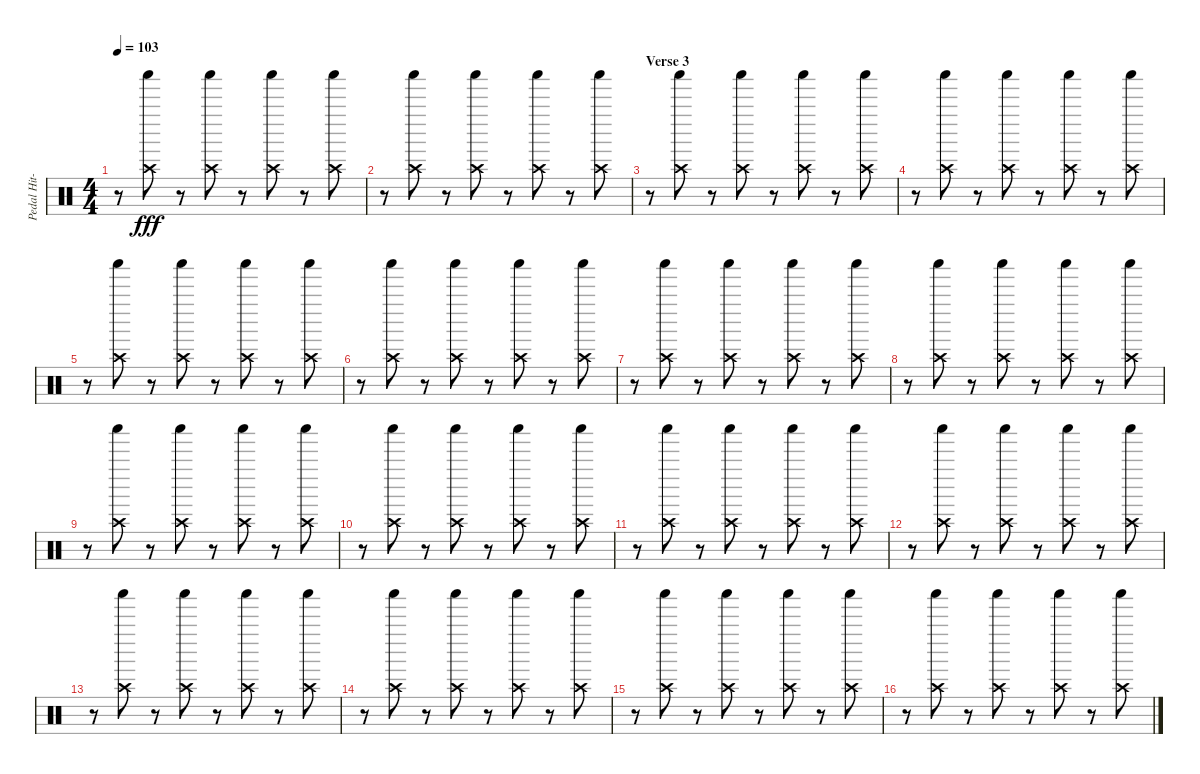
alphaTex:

\track ("Pedal Hit-Hat" "Pedal Hit-") {instrument percussion}
\staff {score}
\articulation defaults
\ts (4 4)
\tempo 103
\clef neutral
\ks c
r.8{dy fff} ("Crash high (hit)" "Shaker (hit)").8 r.8 ("Crash high (hit)" "Shaker (hit)").8 r.8 ("Crash high (hit)" "Shaker (hit)").8 r.8 ("Crash high (hit)" "Shaker (hit)").8 |
r.8 ("Crash high (hit)" "Shaker (hit)").8 r.8 ("Crash high (hit)" "Shaker (hit)").8 r.8 ("Crash high (hit)" "Shaker (hit)").8 r.8 ("Crash high (hit)" "Shaker (hit)").8 |
\section ("" "Verse 3")
r.8 ("Crash high (hit)" "Shaker (hit)").8 r.8 ("Crash high (hit)" "Shaker (hit)").8 r.8 ("Crash high (hit)" "Shaker (hit)").8 r.8 ("Crash high (hit)" "Shaker (hit)").8 |
r.8 ("Crash high (hit)" "Shaker (hit)").8 r.8 ("Crash high (hit)" "Shaker (hit)").8 r.8 ("Crash high (hit)" "Shaker (hit)").8 r.8 ("Crash high (hit)" "Shaker (hit)").8 |
r.8 ("Crash high (hit)" "Shaker (hit)").8 r.8 ("Crash high (hit)" "Shaker (hit)").8 r.8 ("Crash high (hit)" "Shaker (hit)").8 r.8 ("Crash high (hit)" "Shaker (hit)").8 |
r.8 ("Crash high (hit)" "Shaker (hit)").8 r.8 ("Crash high (hit)" "Shaker (hit)").8 r.8 ("Crash high (hit)" "Shaker (hit)").8 r.8 ("Crash high (hit)" "Shaker (hit)").8 |
r.8 ("Crash high (hit)" "Shaker (hit)").8 r.8 ("Crash high (hit)" "Shaker (hit)").8 r.8 ("Crash high (hit)" "Shaker (hit)").8 r.8 ("Crash high (hit)" "Shaker (hit)").8 |
r.8 ("Crash high (hit)" "Shaker (hit)").8 r.8 ("Crash high (hit)" "Shaker (hit)").8 r.8 ("Crash high (hit)" "Shaker (hit)").8 r.8 ("Crash high (hit)" "Shaker (hit)").8 |
r.8 ("Crash high (hit)" "Shaker (hit)").8 r.8 ("Crash high (hit)" "Shaker (hit)").8 r.8 ("Crash high (hit)" "Shaker (hit)").8 r.8 ("Crash high (hit)" "Shaker (hit)").8 |
r.8 ("Crash high (hit)" "Shaker (hit)").8 r.8 ("Crash high (hit)" "Shaker (hit)").8 r.8 ("Crash high (hit)" "Shaker (hit)").8 r.8 ("Crash high (hit)" "Shaker (hit)").8 |
r.8 ("Crash high (hit)" "Shaker (hit)").8 r.8 ("Crash high (hit)" "Shaker (hit)").8 r.8 ("Crash high (hit)" "Shaker (hit)").8 r.8 ("Crash high (hit)" "Shaker (hit)").8 |
r.8 ("Crash high (hit)" "Shaker (hit)").8 r.8 ("Crash high (hit)" "Shaker (hit)").8 r.8 ("Crash high (hit)" "Shaker (hit)").8 r.8 ("Crash high (hit)" "Shaker (hit)").8 |
r.8 ("Crash high (hit)" "Shaker (hit)").8 r.8 ("Crash high (hit)" "Shaker (hit)").8 r.8 ("Crash high (hit)" "Shaker (hit)").8 r.8 ("Crash high (hit)" "Shaker (hit)").8 |
r.8 ("Crash high (hit)" "Shaker (hit)").8 r.8 ("Crash high (hit)" "Shaker (hit)").8 r.8 ("Crash high (hit)" "Shaker (hit)").8 r.8 ("Crash high (hit)" "Shaker (hit)").8 |
r.8 ("Crash high (hit)" "Shaker (hit)").8 r.8 ("Crash high (hit)" "Shaker (hit)").8 r.8 ("Crash high (hit)" "Shaker (hit)").8 r.8 ("Crash high (hit)" "Shaker (hit)").8 |
r.8 ("Crash high (hit)" "Shaker (hit)").8 r.8 ("Crash high (hit)" "Shaker (hit)").8 r.8 ("Crash high (hit)" "Shaker (hit)").8 r.8 ("Crash high (hit)" "Shaker (hit)").8
